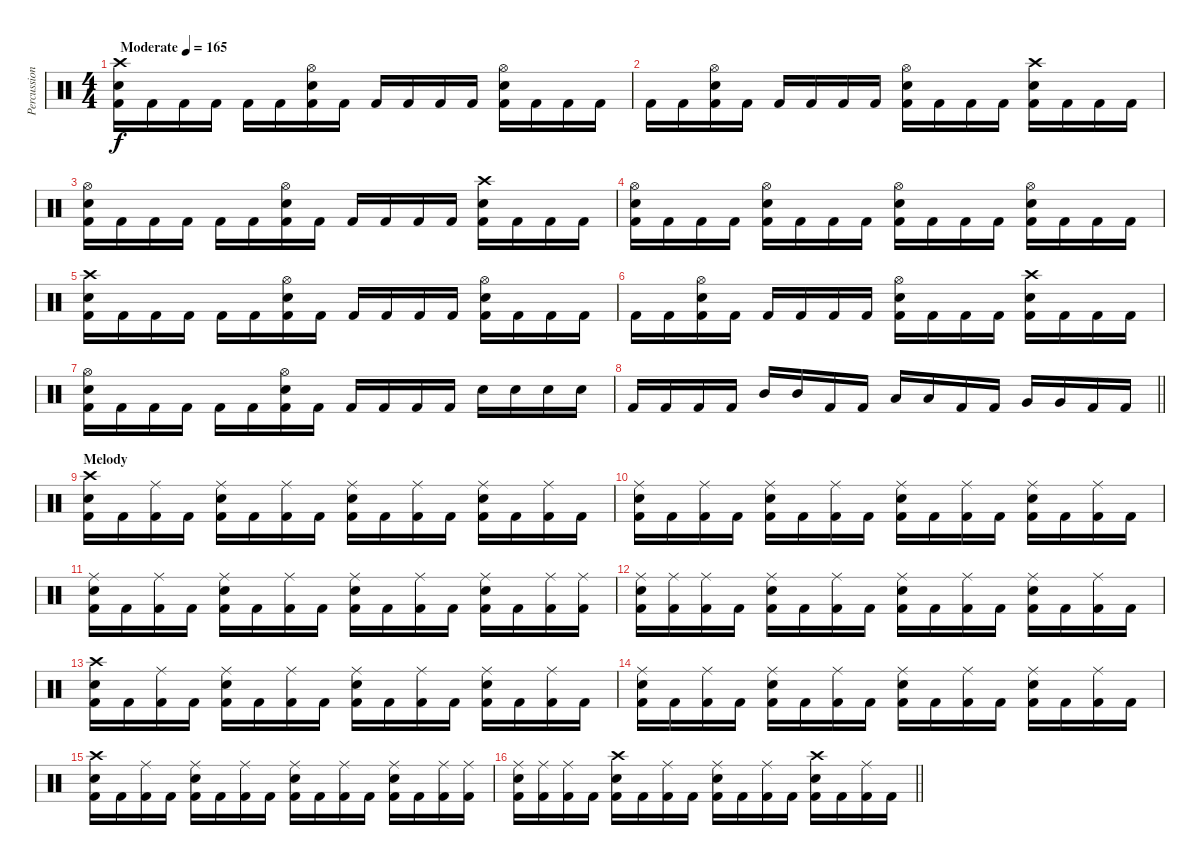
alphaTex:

\track ("Percussions" "Percussion") {instrument percussion}
\staff {score}
\articulation defaults
\ts (4 4)
\tempo (165 "Moderate")
\clef neutral
\ks c
("Crash high (hit)" "Electric Snare (hit)" "Kick (hit) 2").16{dy f} "Kick (hit) 2".16 "Kick (hit) 2".16 "Kick (hit) 2".16 "Kick (hit) 2".16 "Kick (hit) 2".16 ("Hi-Hat (open)" "Electric Snare (hit)" "Kick (hit) 2").16 "Kick (hit) 2".16 "Kick (hit) 2".16 "Kick (hit) 2".16 "Kick (hit) 2".16 "Kick (hit) 2".16 ("Hi-Hat (open)" "Electric Snare (hit)" "Kick (hit) 2").16 "Kick (hit) 2".16 "Kick (hit) 2".16 "Kick (hit) 2".16 |
"Kick (hit) 2".16 "Kick (hit) 2".16 ("Hi-Hat (open)" "Electric Snare (hit)" "Kick (hit) 2").16 "Kick (hit) 2".16 "Kick (hit) 2".16 "Kick (hit) 2".16 "Kick (hit) 2".16 "Kick (hit) 2".16 ("Hi-Hat (open)" "Electric Snare (hit)" "Kick (hit) 2").16 "Kick (hit) 2".16 "Kick (hit) 2".16 "Kick (hit) 2".16 ("Crash high (hit)" "Electric Snare (hit)" "Kick (hit) 2").16 "Kick (hit) 2".16 "Kick (hit) 2".16 "Kick (hit) 2".16 |
("Hi-Hat (open)" "Electric Snare (hit)" "Kick (hit) 2").16 "Kick (hit) 2".16 "Kick (hit) 2".16 "Kick (hit) 2".16 "Kick (hit) 2".16 "Kick (hit) 2".16 ("Hi-Hat (open)" "Electric Snare (hit)" "Kick (hit) 2").16 "Kick (hit) 2".16 "Kick (hit) 2".16 "Kick (hit) 2".16 "Kick (hit) 2".16 "Kick (hit) 2".16 ("Crash high (hit)" "Electric Snare (hit)" "Kick (hit) 2").16 "Kick (hit) 2".16 "Kick (hit) 2".16 "Kick (hit) 2".16 |
("Hi-Hat (open)" "Electric Snare (hit)" "Kick (hit) 2").16 "Kick (hit) 2".16 "Kick (hit) 2".16 "Kick (hit) 2".16 ("Hi-Hat (open)" "Electric Snare (hit)" "Kick (hit) 2").16 "Kick (hit) 2".16 "Kick (hit) 2".16 "Kick (hit) 2".16 ("Hi-Hat (open)" "Electric Snare (hit)" "Kick (hit) 2").16 "Kick (hit) 2".16 "Kick (hit) 2".16 "Kick (hit) 2".16 ("Hi-Hat (open)" "Electric Snare (hit)" "Kick (hit) 2").16 "Kick (hit) 2".16 "Kick (hit) 2".16 "Kick (hit) 2".16 |
("Crash high (hit)" "Electric Snare (hit)" "Kick (hit) 2").16 "Kick (hit) 2".16 "Kick (hit) 2".16 "Kick (hit) 2".16 "Kick (hit) 2".16 "Kick (hit) 2".16 ("Hi-Hat (open)" "Electric Snare (hit)" "Kick (hit) 2").16 "Kick (hit) 2".16 "Kick (hit) 2".16 "Kick (hit) 2".16 "Kick (hit) 2".16 "Kick (hit) 2".16 ("Hi-Hat (open)" "Electric Snare (hit)" "Kick (hit) 2").16 "Kick (hit) 2".16 "Kick (hit) 2".16 "Kick (hit) 2".16 |
"Kick (hit) 2".16 "Kick (hit) 2".16 ("Hi-Hat (open)" "Electric Snare (hit)" "Kick (hit) 2").16 "Kick (hit) 2".16 "Kick (hit) 2".16 "Kick (hit) 2".16 "Kick (hit) 2".16 "Kick (hit) 2".16 ("Hi-Hat (open)" "Electric Snare (hit)" "Kick (hit) 2").16 "Kick (hit) 2".16 "Kick (hit) 2".16 "Kick (hit) 2".16 ("Crash high (hit)" "Electric Snare (hit)" "Kick (hit) 2").16 "Kick (hit) 2".16 "Kick (hit) 2".16 "Kick (hit) 2".16 |
("Hi-Hat (open)" "Electric Snare (hit)" "Kick (hit) 2").16 "Kick (hit) 2".16 "Kick (hit) 2".16 "Kick (hit) 2".16 "Kick (hit) 2".16 "Kick (hit) 2".16 ("Hi-Hat (open)" "Electric Snare (hit)" "Kick (hit) 2").16 "Kick (hit) 2".16 "Kick (hit) 2".16 "Kick (hit) 2".16 "Kick (hit) 2".16 "Kick (hit) 2".16 "Electric Snare (hit)".16 "Electric Snare (hit)".16 "Electric Snare (hit)".16 "Electric Snare (hit)".16 |
\barLineRight lightlight "Kick (hit) 2".16 "Kick (hit) 2".16 "Kick (hit) 2".16 "Kick (hit) 2".16 "Mid Tom (hit)".16 "Mid Tom (hit)".16 "Kick (hit) 2".16 "Kick (hit) 2".16 "Low Tom (hit)".16 "Low Tom (hit)".16 "Kick (hit) 2".16 "Kick (hit) 2".16 "Very Low Tom (hit)".16 "Very Low Tom (hit)".16 "Kick (hit) 2".16 "Kick (hit) 2".16
|
\section ("" "Melody")
("Crash high (hit)" "Electric Snare (hit)" "Kick (hit) 2").16 "Kick (hit) 2".16 ("Ride (middle)" "Kick (hit) 2").16 "Kick (hit) 2".16 ("Ride (middle)" "Electric Snare (hit)" "Kick (hit) 2").16 "Kick (hit) 2".16 ("Ride (middle)" "Kick (hit) 2").16 "Kick (hit) 2".16 ("Ride (middle)" "Electric Snare (hit)" "Kick (hit) 2").16 "Kick (hit) 2".16 ("Ride (middle)" "Kick (hit) 2").16 "Kick (hit) 2".16 ("Ride (middle)" "Electric Snare (hit)" "Kick (hit) 2").16 "Kick (hit) 2".16 ("Ride (middle)" "Kick (hit) 2").16 "Kick (hit) 2".16 |
("Ride (middle)" "Electric Snare (hit)" "Kick (hit) 2").16 "Kick (hit) 2".16 ("Ride (middle)" "Kick (hit) 2").16 "Kick (hit) 2".16 ("Ride (middle)" "Electric Snare (hit)" "Kick (hit) 2").16 "Kick (hit) 2".16 ("Ride (middle)" "Kick (hit) 2").16 "Kick (hit) 2".16 ("Ride (middle)" "Electric Snare (hit)" "Kick (hit) 2").16 "Kick (hit) 2".16 ("Ride (middle)" "Kick (hit) 2").16 "Kick (hit) 2".16 ("Ride (middle)" "Electric Snare (hit)" "Kick (hit) 2").16 "Kick (hit) 2".16 ("Ride (middle)" "Kick (hit) 2").16 "Kick (hit) 2".16 |
("Ride (middle)" "Electric Snare (hit)" "Kick (hit) 2").16 "Kick (hit) 2".16 ("Ride (middle)" "Kick (hit) 2").16 "Kick (hit) 2".16 ("Ride (middle)" "Electric Snare (hit)" "Kick (hit) 2").16 "Kick (hit) 2".16 ("Ride (middle)" "Kick (hit) 2").16 "Kick (hit) 2".16 ("Ride (middle)" "Electric Snare (hit)" "Kick (hit) 2").16 "Kick (hit) 2".16 ("Ride (middle)" "Kick (hit) 2").16 "Kick (hit) 2".16 ("Ride (middle)" "Electric Snare (hit)" "Kick (hit) 2").16 "Kick (hit) 2".16 ("Ride (middle)" "Kick (hit) 2").16 ("Ride (middle)" "Kick (hit) 2").16 |
("Ride (middle)" "Electric Snare (hit)" "Kick (hit) 2").16 ("Ride (middle)" "Kick (hit) 2").16 ("Ride (middle)" "Kick (hit) 2").16 "Kick (hit) 2".16 ("Ride (middle)" "Electric Snare (hit)" "Kick (hit) 2").16 "Kick (hit) 2".16 ("Ride (middle)" "Kick (hit) 2").16 "Kick (hit) 2".16 ("Ride (middle)" "Electric Snare (hit)" "Kick (hit) 2").16 "Kick (hit) 2".16 ("Ride (middle)" "Kick (hit) 2").16 "Kick (hit) 2".16 ("Ride (middle)" "Electric Snare (hit)" "Kick (hit) 2").16 "Kick (hit) 2".16 ("Ride (middle)" "Kick (hit) 2").16 "Kick (hit) 2".16 |
("Crash high (hit)" "Electric Snare (hit)" "Kick (hit) 2").16 "Kick (hit) 2".16 ("Ride (middle)" "Kick (hit) 2").16 "Kick (hit) 2".16 ("Ride (middle)" "Electric Snare (hit)" "Kick (hit) 2").16 "Kick (hit) 2".16 ("Ride (middle)" "Kick (hit) 2").16 "Kick (hit) 2".16 ("Ride (middle)" "Electric Snare (hit)" "Kick (hit) 2").16 "Kick (hit) 2".16 ("Ride (middle)" "Kick (hit) 2").16 "Kick (hit) 2".16 ("Ride (middle)" "Electric Snare (hit)" "Kick (hit) 2").16 "Kick (hit) 2".16 ("Ride (middle)" "Kick (hit) 2").16 "Kick (hit) 2".16 |
("Ride (middle)" "Electric Snare (hit)" "Kick (hit) 2").16 "Kick (hit) 2".16 ("Ride (middle)" "Kick (hit) 2").16 "Kick (hit) 2".16 ("Ride (middle)" "Electric Snare (hit)" "Kick (hit) 2").16 "Kick (hit) 2".16 ("Ride (middle)" "Kick (hit) 2").16 "Kick (hit) 2".16 ("Ride (middle)" "Electric Snare (hit)" "Kick (hit) 2").16 "Kick (hit) 2".16 ("Ride (middle)" "Kick (hit) 2").16 "Kick (hit) 2".16 ("Ride (middle)" "Electric Snare (hit)" "Kick (hit) 2").16 "Kick (hit) 2".16 ("Ride (middle)" "Kick (hit) 2").16 "Kick (hit) 2".16 |
("Crash high (hit)" "Electric Snare (hit)" "Kick (hit) 2").16 "Kick (hit) 2".16 ("Ride (middle)" "Kick (hit) 2").16 "Kick (hit) 2".16 ("Ride (middle)" "Electric Snare (hit)" "Kick (hit) 2").16 "Kick (hit) 2".16 ("Ride (middle)" "Kick (hit) 2").16 "Kick (hit) 2".16 ("Ride (middle)" "Electric Snare (hit)" "Kick (hit) 2").16 "Kick (hit) 2".16 ("Ride (middle)" "Kick (hit) 2").16 "Kick (hit) 2".16 ("Ride (middle)" "Electric Snare (hit)" "Kick (hit) 2").16 "Kick (hit) 2".16 ("Ride (middle)" "Kick (hit) 2").16 ("Ride (middle)" "Kick (hit) 2").16 |
\barLineRight lightlight
("Ride (middle)" "Electric Snare (hit)" "Kick (hit) 2").16 ("Ride (middle)" "Kick (hit) 2").16 ("Ride (middle)" "Kick (hit) 2").16 "Kick (hit) 2".16 ("Crash high (hit)" "Electric Snare (hit)" "Kick (hit) 2").16 "Kick (hit) 2".16 ("Ride (middle)" "Kick (hit) 2").16 "Kick (hit) 2".16 ("Ride (middle)" "Electric Snare (hit)" "Kick (hit) 2").16 "Kick (hit) 2".16 ("Ride (middle)" "Kick (hit) 2").16 "Kick (hit) 2".16 ("Crash high (hit)" "Electric Snare (hit)" "Kick (hit) 2").16 "Kick (hit) 2".16 ("Ride (middle)" "Kick (hit) 2").16 "Kick (hit) 2".16
